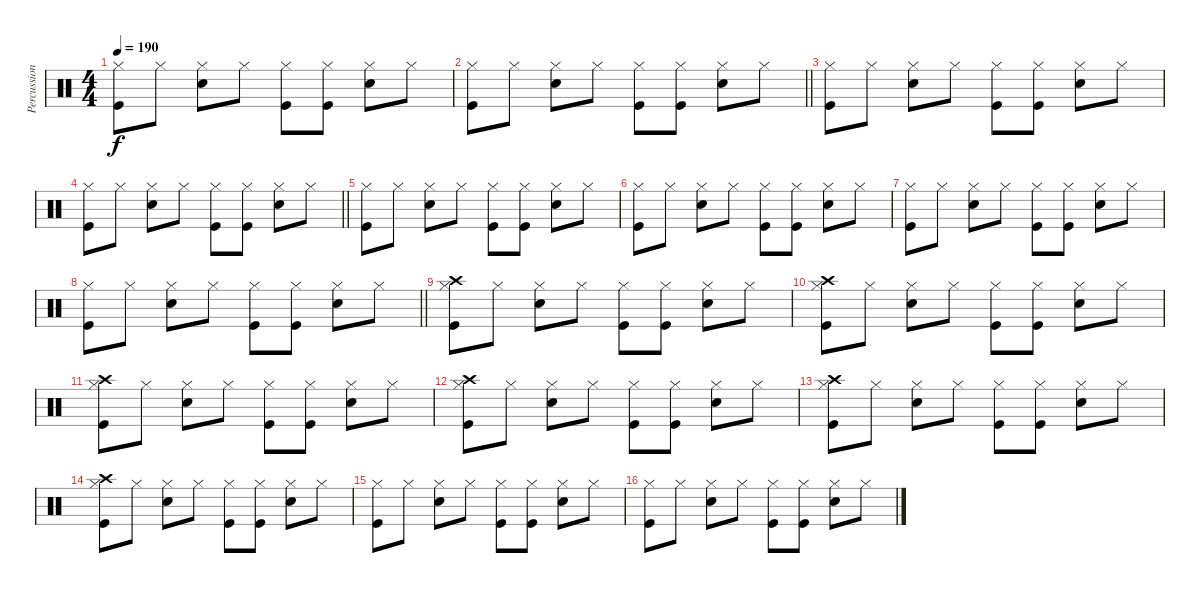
\track ("Percussion" "Percussion") {instrument percussion}
\staff {score}
\articulation defaults
\ts (4 4)
\tempo 190
\clef neutral
\ks c
("Hi-Hat (closed)" "Kick (hit)").8{dy f} "Hi-Hat (closed)".8 ("Snare (hit) 2" "Hi-Hat (closed)").8 "Hi-Hat (closed)".8 ("Hi-Hat (closed)" "Kick (hit)").8 ("Hi-Hat (closed)" "Kick (hit)").8 ("Snare (hit) 2" "Hi-Hat (closed)").8 "Hi-Hat (closed)".8 |
\barLineRight lightlight
("Hi-Hat (closed)" "Kick (hit)").8 "Hi-Hat (closed)".8 ("Snare (hit) 2" "Hi-Hat (closed)").8 "Hi-Hat (closed)".8 ("Hi-Hat (closed)" "Kick (hit)").8 ("Hi-Hat (closed)" "Kick (hit)").8 ("Snare (hit) 2" "Hi-Hat (closed)").8 "Hi-Hat (closed)".8 |
("Hi-Hat (closed)" "Kick (hit)").8 "Hi-Hat (closed)".8 ("Snare (hit) 2" "Hi-Hat (closed)").8 "Hi-Hat (closed)".8 ("Hi-Hat (closed)" "Kick (hit)").8 ("Hi-Hat (closed)" "Kick (hit)").8 ("Snare (hit) 2" "Hi-Hat (closed)").8 "Hi-Hat (closed)".8 |
\barLineRight lightlight
("Hi-Hat (closed)" "Kick (hit)").8 "Hi-Hat (closed)".8 ("Snare (hit) 2" "Hi-Hat (closed)").8 "Hi-Hat (closed)".8 ("Hi-Hat (closed)" "Kick (hit)").8 ("Hi-Hat (closed)" "Kick (hit)").8 ("Snare (hit) 2" "Hi-Hat (closed)").8 "Hi-Hat (closed)".8 |
("Hi-Hat (closed)" "Kick (hit)").8 "Hi-Hat (closed)".8 ("Snare (hit) 2" "Hi-Hat (closed)").8 "Hi-Hat (closed)".8 ("Hi-Hat (closed)" "Kick (hit)").8 ("Hi-Hat (closed)" "Kick (hit)").8 ("Snare (hit) 2" "Hi-Hat (closed)").8 "Hi-Hat (closed)".8 |
("Hi-Hat (closed)" "Kick (hit)").8 "Hi-Hat (closed)".8 ("Snare (hit) 2" "Hi-Hat (closed)").8 "Hi-Hat (closed)".8 ("Hi-Hat (closed)" "Kick (hit)").8 ("Hi-Hat (closed)" "Kick (hit)").8 ("Snare (hit) 2" "Hi-Hat (closed)").8 "Hi-Hat (closed)".8 |
("Hi-Hat (closed)" "Kick (hit)").8 "Hi-Hat (closed)".8 ("Snare (hit) 2" "Hi-Hat (closed)").8 "Hi-Hat (closed)".8 ("Hi-Hat (closed)" "Kick (hit)").8 ("Hi-Hat (closed)" "Kick (hit)").8 ("Snare (hit) 2" "Hi-Hat (closed)").8 "Hi-Hat (closed)".8 |
\barLineRight lightlight
("Hi-Hat (closed)" "Kick (hit)").8 "Hi-Hat (closed)".8 ("Snare (hit) 2" "Hi-Hat (closed)").8 "Hi-Hat (closed)".8 ("Hi-Hat (closed)" "Kick (hit)").8 ("Hi-Hat (closed)" "Kick (hit)").8 ("Snare (hit) 2" "Hi-Hat (closed)").8 "Hi-Hat (closed)".8 |
("Crash high (hit)" "Hi-Hat (closed)" "Kick (hit)").8 "Hi-Hat (closed)".8 ("Snare (hit) 2" "Hi-Hat (closed)").8 "Hi-Hat (closed)".8 ("Hi-Hat (closed)" "Kick (hit)").8 ("Hi-Hat (closed)" "Kick (hit)").8 ("Snare (hit) 2" "Hi-Hat (closed)").8 "Hi-Hat (closed)".8 |
("Crash high (hit)" "Hi-Hat (closed)" "Kick (hit)").8 "Hi-Hat (closed)".8 ("Snare (hit) 2" "Hi-Hat (closed)").8 "Hi-Hat (closed)".8 ("Hi-Hat (closed)" "Kick (hit)").8 ("Hi-Hat (closed)" "Kick (hit)").8 ("Snare (hit) 2" "Hi-Hat (closed)").8 "Hi-Hat (closed)".8 |
("Crash high (hit)" "Hi-Hat (closed)" "Kick (hit)").8 "Hi-Hat (closed)".8 ("Snare (hit) 2" "Hi-Hat (closed)").8 "Hi-Hat (closed)".8 ("Hi-Hat (closed)" "Kick (hit)").8 ("Hi-Hat (closed)" "Kick (hit)").8 ("Snare (hit) 2" "Hi-Hat (closed)").8 "Hi-Hat (closed)".8 |
("Crash high (hit)" "Hi-Hat (closed)" "Kick (hit)").8 "Hi-Hat (closed)".8 ("Snare (hit) 2" "Hi-Hat (closed)").8 "Hi-Hat (closed)".8 ("Hi-Hat (closed)" "Kick (hit)").8 ("Hi-Hat (closed)" "Kick (hit)").8 ("Snare (hit) 2" "Hi-Hat (closed)").8 "Hi-Hat (closed)".8 |
("Crash high (hit)" "Hi-Hat (closed)" "Kick (hit)").8 "Hi-Hat (closed)".8 ("Snare (hit) 2" "Hi-Hat (closed)").8 "Hi-Hat (closed)".8 ("Hi-Hat (closed)" "Kick (hit)").8 ("Hi-Hat (closed)" "Kick (hit)").8 ("Snare (hit) 2" "Hi-Hat (closed)").8 "Hi-Hat (closed)".8 |
("Crash high (hit)" "Hi-Hat (closed)" "Kick (hit)").8 "Hi-Hat (closed)".8 ("Snare (hit) 2" "Hi-Hat (closed)").8 "Hi-Hat (closed)".8 ("Hi-Hat (closed)" "Kick (hit)").8 ("Hi-Hat (closed)" "Kick (hit)").8 ("Snare (hit) 2" "Hi-Hat (closed)").8 "Hi-Hat (closed)".8 |
("Hi-Hat (closed)" "Kick (hit)").8 "Hi-Hat (closed)".8 ("Snare (hit) 2" "Hi-Hat (closed)").8 "Hi-Hat (closed)".8 ("Hi-Hat (closed)" "Kick (hit)").8 ("Hi-Hat (closed)" "Kick (hit)").8 ("Snare (hit) 2" "Hi-Hat (closed)").8 "Hi-Hat (closed)".8 |
("Hi-Hat (closed)" "Kick (hit)").8 "Hi-Hat (closed)".8 ("Snare (hit) 2" "Hi-Hat (closed)").8 "Hi-Hat (closed)".8 ("Hi-Hat (closed)" "Kick (hit)").8 ("Hi-Hat (closed)" "Kick (hit)").8 ("Snare (hit) 2" "Hi-Hat (closed)").8 "Hi-Hat (closed)".8
